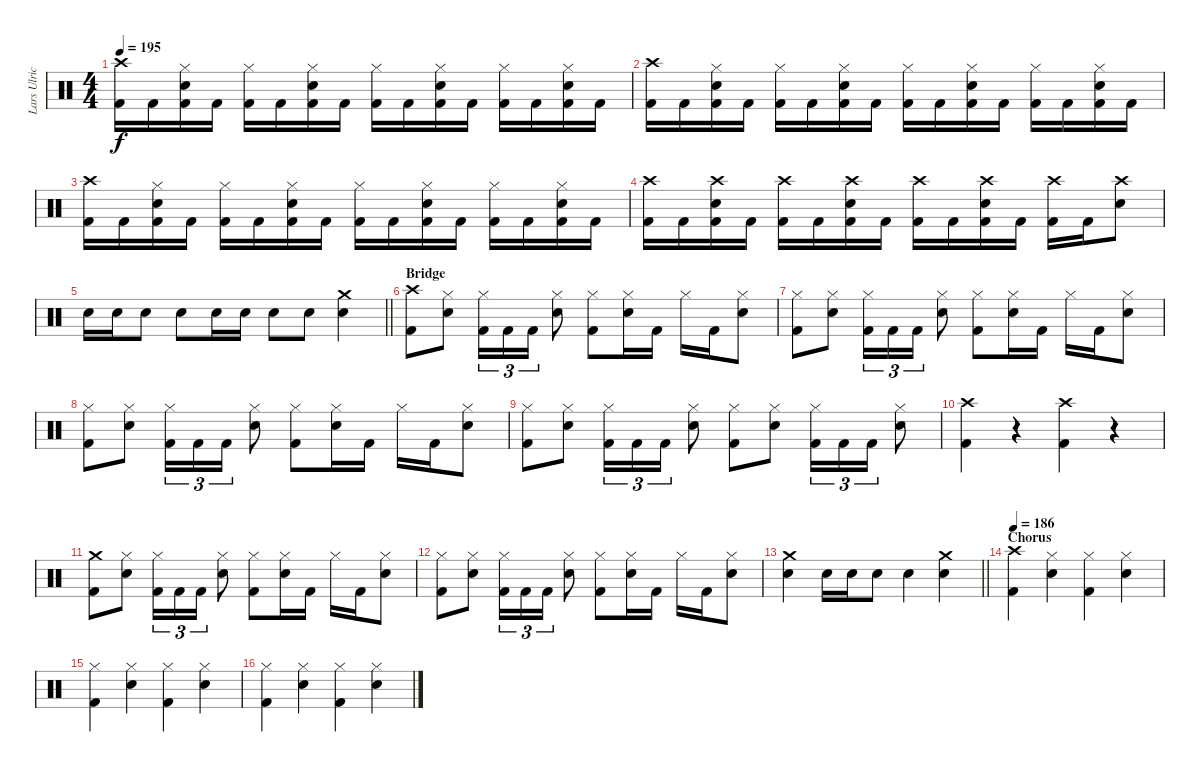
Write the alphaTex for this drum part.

\track ("Lars Ulrich" "Lars Ulric") {instrument percussion}
\staff {score}
\articulation defaults
\ts (4 4)
\tempo 195
\clef neutral
\ks c
("Crash high (hit)" "Kick (hit) 2").16{dy f} "Kick (hit) 2".16 ("Hi-Hat (closed)" "Electric Snare (hit)" "Kick (hit) 2").16 "Kick (hit) 2".16 ("Hi-Hat (closed)" "Kick (hit) 2").16 "Kick (hit) 2".16 ("Hi-Hat (closed)" "Electric Snare (hit)" "Kick (hit) 2").16 "Kick (hit) 2".16 ("Hi-Hat (closed)" "Kick (hit) 2").16 "Kick (hit) 2".16 ("Hi-Hat (closed)" "Electric Snare (hit)" "Kick (hit) 2").16 "Kick (hit) 2".16 ("Hi-Hat (closed)" "Kick (hit) 2").16 "Kick (hit) 2".16 ("Hi-Hat (closed)" "Electric Snare (hit)" "Kick (hit) 2").16 "Kick (hit) 2".16 |
("Crash high (hit)" "Kick (hit) 2").16 "Kick (hit) 2".16 ("Hi-Hat (closed)" "Electric Snare (hit)" "Kick (hit) 2").16 "Kick (hit) 2".16 ("Hi-Hat (closed)" "Kick (hit) 2").16 "Kick (hit) 2".16 ("Hi-Hat (closed)" "Electric Snare (hit)" "Kick (hit) 2").16 "Kick (hit) 2".16 ("Hi-Hat (closed)" "Kick (hit) 2").16 "Kick (hit) 2".16 ("Hi-Hat (closed)" "Electric Snare (hit)" "Kick (hit) 2").16 "Kick (hit) 2".16 ("Hi-Hat (closed)" "Kick (hit) 2").16 "Kick (hit) 2".16 ("Hi-Hat (closed)" "Electric Snare (hit)" "Kick (hit) 2").16 "Kick (hit) 2".16 |
("Crash high (hit)" "Kick (hit) 2").16 "Kick (hit) 2".16 ("Hi-Hat (closed)" "Electric Snare (hit)" "Kick (hit) 2").16 "Kick (hit) 2".16 ("Hi-Hat (closed)" "Kick (hit) 2").16 "Kick (hit) 2".16 ("Hi-Hat (closed)" "Electric Snare (hit)" "Kick (hit) 2").16 "Kick (hit) 2".16 ("Hi-Hat (closed)" "Kick (hit) 2").16 "Kick (hit) 2".16 ("Hi-Hat (closed)" "Electric Snare (hit)" "Kick (hit) 2").16 "Kick (hit) 2".16 ("Hi-Hat (closed)" "Kick (hit) 2").16 "Kick (hit) 2".16 ("Hi-Hat (closed)" "Electric Snare (hit)" "Kick (hit) 2").16 "Kick (hit) 2".16 |
("Crash high (hit)" "Kick (hit) 2").16 "Kick (hit) 2".16 ("Crash high (hit)" "Electric Snare (hit)" "Kick (hit) 2").16 "Kick (hit) 2".16 ("Crash high (hit)" "Kick (hit) 2").16 "Kick (hit) 2".16 ("Crash high (hit)" "Electric Snare (hit)" "Kick (hit) 2").16 "Kick (hit) 2".16 ("Crash high (hit)" "Kick (hit) 2").16 "Kick (hit) 2".16 ("Crash high (hit)" "Electric Snare (hit)" "Kick (hit) 2").16 "Kick (hit) 2".16 ("Crash high (hit)" "Kick (hit) 2").16 "Kick (hit) 2".16 ("Crash high (hit)" "Electric Snare (hit)").8 |
\barLineRight lightlight "Electric Snare (hit)".16 "Electric Snare (hit)".16 "Electric Snare (hit)".8 "Electric Snare (hit)".8 "Electric Snare (hit)".16 "Electric Snare (hit)".16 "Electric Snare (hit)".8 "Electric Snare (hit)".8
("Crash medium (hit)" "Electric Snare (hit)").4 |
\section ("" "Bridge")
("Crash high (hit)" "Kick (hit) 2").8 ("Hi-Hat (closed)" "Electric Snare (hit)").8 ("Hi-Hat (closed)" "Kick (hit) 2").16{tu (3 2)} "Kick (hit) 2".16{tu (3 2)} "Kick (hit) 2".16{tu (3 2)} ("Hi-Hat (closed)" "Electric Snare (hit)").8 ("Hi-Hat (closed)" "Kick (hit) 2").8 ("Hi-Hat (closed)" "Electric Snare (hit)").16 "Kick (hit) 2".16 "Hi-Hat (closed)".16 "Kick (hit) 2".16 ("Hi-Hat (closed)" "Electric Snare (hit)").8 |
("Hi-Hat (closed)" "Kick (hit) 2").8 ("Hi-Hat (closed)" "Electric Snare (hit)").8 ("Hi-Hat (closed)" "Kick (hit) 2").16{tu (3 2)} "Kick (hit) 2".16{tu (3 2)} "Kick (hit) 2".16{tu (3 2)} ("Hi-Hat (closed)" "Electric Snare (hit)").8 ("Hi-Hat (closed)" "Kick (hit) 2").8 ("Hi-Hat (closed)" "Electric Snare (hit)").16 "Kick (hit) 2".16 "Hi-Hat (closed)".16 "Kick (hit) 2".16 ("Hi-Hat (closed)" "Electric Snare (hit)").8 |
("Hi-Hat (closed)" "Kick (hit) 2").8 ("Hi-Hat (closed)" "Electric Snare (hit)").8 ("Hi-Hat (closed)" "Kick (hit) 2").16{tu (3 2)} "Kick (hit) 2".16{tu (3 2)} "Kick (hit) 2".16{tu (3 2)} ("Hi-Hat (closed)" "Electric Snare (hit)").8 ("Hi-Hat (closed)" "Kick (hit) 2").8 ("Hi-Hat (closed)" "Electric Snare (hit)").16 "Kick (hit) 2".16 "Hi-Hat (closed)".16 "Kick (hit) 2".16 ("Hi-Hat (closed)" "Electric Snare (hit)").8 |
("Hi-Hat (closed)" "Kick (hit) 2").8 ("Hi-Hat (closed)" "Electric Snare (hit)").8 ("Hi-Hat (closed)" "Kick (hit) 2").16{tu (3 2)} "Kick (hit) 2".16{tu (3 2)} "Kick (hit) 2".16{tu (3 2)} ("Hi-Hat (closed)" "Electric Snare (hit)").8 ("Hi-Hat (closed)" "Kick (hit) 2").8 ("Hi-Hat (closed)" "Electric Snare (hit)").8 ("Hi-Hat (closed)" "Kick (hit) 2").16{tu (3 2)} "Kick (hit) 2".16{tu (3 2)} "Kick (hit) 2".16{tu (3 2)} ("Hi-Hat (closed)" "Electric Snare (hit)").8 |
("Crash high (hit)" "Kick (hit) 2").4 r.4{volume 0} ("Crash high (hit)" "Kick (hit) 2").4{volume 14} r.4{volume 0} |
("Crash medium (hit)" "Kick (hit) 2").8{volume 14} ("Hi-Hat (closed)" "Electric Snare (hit)").8 ("Hi-Hat (closed)" "Kick (hit) 2").16{tu (3 2)} "Kick (hit) 2".16{tu (3 2)} "Kick (hit) 2".16{tu (3 2)} ("Hi-Hat (closed)" "Electric Snare (hit)").8 ("Hi-Hat (closed)" "Kick (hit) 2").8 ("Hi-Hat (closed)" "Electric Snare (hit)").16 "Kick (hit) 2".16 "Hi-Hat (closed)".16 "Kick (hit) 2".16 ("Hi-Hat (closed)" "Electric Snare (hit)").8 |
("Hi-Hat (closed)" "Kick (hit) 2").8 ("Hi-Hat (closed)" "Electric Snare (hit)").8 ("Hi-Hat (closed)" "Kick (hit) 2").16{tu (3 2)} "Kick (hit) 2".16{tu (3 2)} "Kick (hit) 2".16{tu (3 2)} ("Hi-Hat (closed)" "Electric Snare (hit)").8 ("Hi-Hat (closed)" "Kick (hit) 2").8 ("Hi-Hat (closed)" "Electric Snare (hit)").16 "Kick (hit) 2".16 "Hi-Hat (closed)".16 "Kick (hit) 2".16 ("Hi-Hat (closed)" "Electric Snare (hit)").8 |
\barLineRight lightlight
("Crash medium (hit)" "Electric Snare (hit)").4 "Electric Snare (hit)".16 "Electric Snare (hit)".16 "Electric Snare (hit)".8 "Electric Snare (hit)".4 ("Crash medium (hit)" "Electric Snare (hit)").4 |
\section ("" "Chorus")
\tempo 186
("Crash high (hit)" "Kick (hit) 2").4 ("Hi-Hat (closed)" "Electric Snare (hit)").4 ("Hi-Hat (closed)" "Kick (hit) 2").4 ("Hi-Hat (closed)" "Electric Snare (hit)").4 |
("Hi-Hat (closed)" "Kick (hit) 2").4 ("Hi-Hat (closed)" "Electric Snare (hit)").4 ("Hi-Hat (closed)" "Kick (hit) 2").4 ("Hi-Hat (closed)" "Electric Snare (hit)").4 |
("Hi-Hat (closed)" "Kick (hit) 2").4 ("Hi-Hat (closed)" "Electric Snare (hit)").4 ("Hi-Hat (closed)" "Kick (hit) 2").4 ("Hi-Hat (closed)" "Electric Snare (hit)").4
